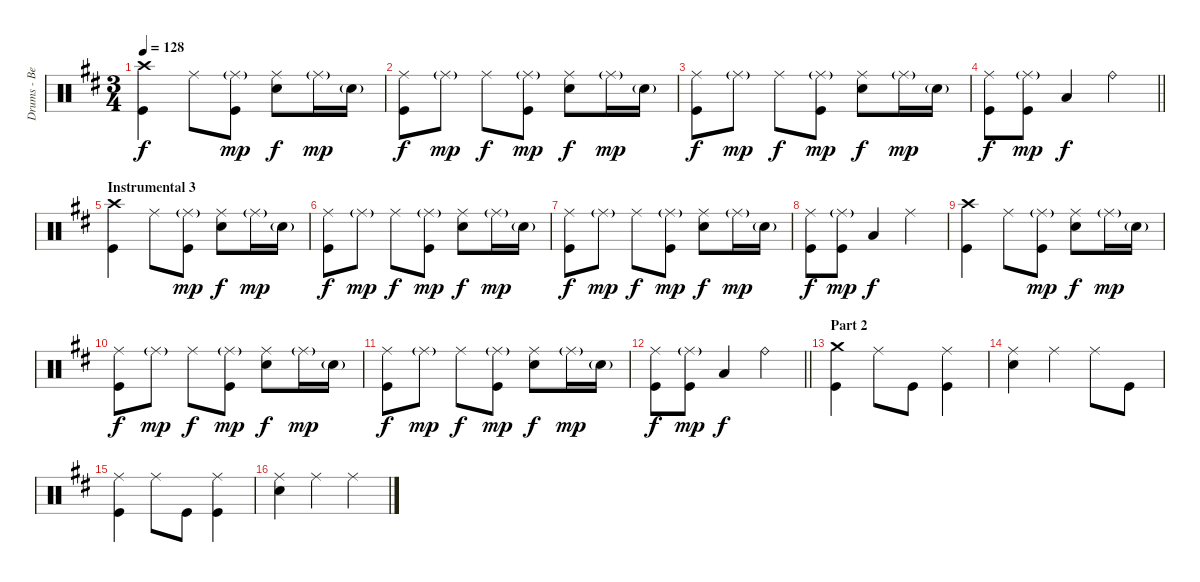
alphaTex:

\track ("Drums - Ben Johnston" "Drums - Be") {instrument percussion}
\staff {score}
\articulation defaults
\ts (3 4)
\tempo 128
\clef neutral
\ks d
("Crash high (hit)" "Kick (hit)").4{dy f} "Ride (middle)".8 ("Ride (middle)"{g} "Kick (hit)").8{dy mp} ("Ride (middle)" "Snare (hit) 2").8{dy f} "Ride (middle)"{g}.16{dy mp} "Snare (hit) 2"{g}.16 |
("Ride (middle)" "Kick (hit)").8{dy f} "Ride (middle)"{g}.8{dy mp} "Ride (middle)".8{dy f} ("Ride (middle)"{g} "Kick (hit)").8{dy mp} ("Ride (middle)" "Snare (hit) 2").8{dy f} "Ride (middle)"{g}.16{dy mp} "Snare (hit) 2"{g}.16 |
("Ride (middle)" "Kick (hit)").8{dy f} "Ride (middle)"{g}.8{dy mp} "Ride (middle)".8{dy f} ("Ride (middle)"{g} "Kick (hit)").8{dy mp} ("Ride (middle)" "Snare (hit) 2").8{dy f} "Ride (middle)"{g}.16{dy mp} "Snare (hit) 2"{g}.16 |
\barLineRight lightlight
("Ride (middle)" "Kick (hit)").8{dy f} ("Ride (middle)"{g} "Kick (hit)").8{dy mp} "Low Floor Tom (hit)".4{dy f} "Ride (bell)".4 |
\section ("" "Instrumental 3")
("Crash high (hit)" "Kick (hit)").4 "Ride (middle)".8 ("Ride (middle)"{g} "Kick (hit)").8{dy mp} ("Ride (middle)" "Snare (hit) 2").8{dy f} "Ride (middle)"{g}.16{dy mp} "Snare (hit) 2"{g}.16 |
("Ride (middle)" "Kick (hit)").8{dy f} "Ride (middle)"{g}.8{dy mp} "Ride (middle)".8{dy f} ("Ride (middle)"{g} "Kick (hit)").8{dy mp} ("Ride (middle)" "Snare (hit) 2").8{dy f} "Ride (middle)"{g}.16{dy mp} "Snare (hit) 2"{g}.16 |
("Ride (middle)" "Kick (hit)").8{dy f} "Ride (middle)"{g}.8{dy mp} "Ride (middle)".8{dy f} ("Ride (middle)"{g} "Kick (hit)").8{dy mp} ("Ride (middle)" "Snare (hit) 2").8{dy f} "Ride (middle)"{g}.16{dy mp} "Snare (hit) 2"{g}.16 |
("Ride (middle)" "Kick (hit)").8{dy f} ("Ride (middle)"{g} "Kick (hit)").8{dy mp} "Low Floor Tom (hit)".4{dy f} "Ride (middle)".4 |
("Crash high (hit)" "Kick (hit)").4 "Ride (middle)".8 ("Ride (middle)"{g} "Kick (hit)").8{dy mp} ("Ride (middle)" "Snare (hit) 2").8{dy f} "Ride (middle)"{g}.16{dy mp} "Snare (hit) 2"{g}.16 |
("Ride (middle)" "Kick (hit)").8{dy f} "Ride (middle)"{g}.8{dy mp} "Ride (middle)".8{dy f} ("Ride (middle)"{g} "Kick (hit)").8{dy mp} ("Ride (middle)" "Snare (hit) 2").8{dy f} "Ride (middle)"{g}.16{dy mp} "Snare (hit) 2"{g}.16 |
("Ride (middle)" "Kick (hit)").8{dy f} "Ride (middle)"{g}.8{dy mp} "Ride (middle)".8{dy f} ("Ride (middle)"{g} "Kick (hit)").8{dy mp} ("Ride (middle)" "Snare (hit) 2").8{dy f} "Ride (middle)"{g}.16{dy mp} "Snare (hit) 2"{g}.16 |
\barLineRight lightlight
("Ride (middle)" "Kick (hit)").8{dy f} ("Ride (middle)"{g} "Kick (hit)").8{dy mp} "Low Floor Tom (hit)".4{dy f} "Ride (bell)".4 |
\section ("" "Part 2")
("Crash medium (hit)" "Kick (hit)").4 "Ride (middle)".8 "Kick (hit)".8 ("Ride (middle)" "Kick (hit)").4 |
("Ride (middle)" "Snare (hit) 2").4 "Ride (middle)".4 "Ride (middle)".8 "Kick (hit)".8 |
("Ride (middle)" "Kick (hit)").4 "Ride (middle)".8 "Kick (hit)".8 ("Ride (middle)" "Kick (hit)").4 |
("Ride (middle)" "Snare (hit) 2").4 "Ride (middle)".4 "Ride (middle)".4
